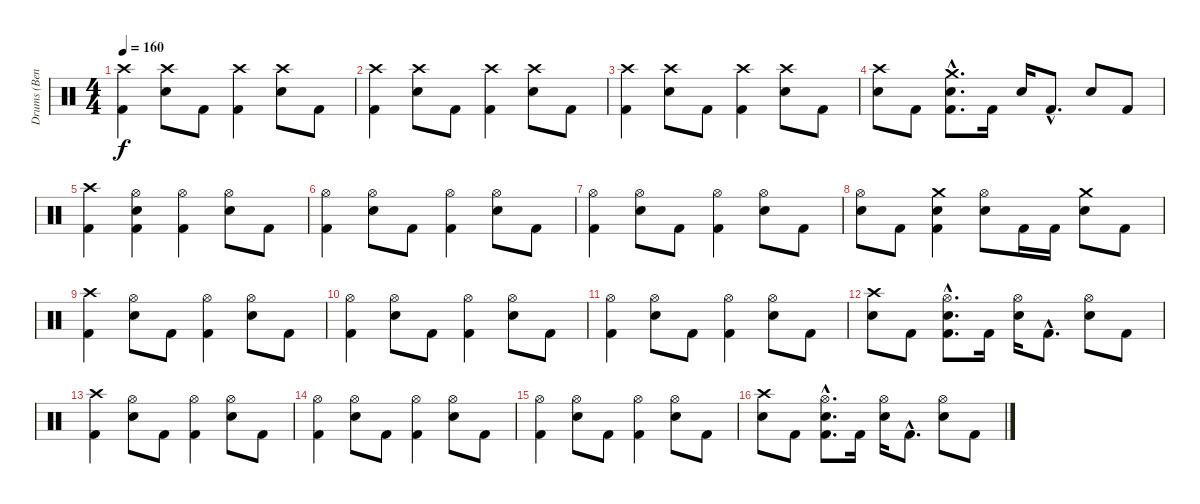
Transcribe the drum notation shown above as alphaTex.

\track ("Drums (Ben)" "Drums (Ben") {instrument percussion}
\staff {score}
\articulation defaults
\ts (4 4)
\tempo 160
\clef neutral
\ks c
("Crash high (hit)" "Kick (hit) 2").4{dy f} ("Crash high (hit)" "Snare (hit) 2").8 "Kick (hit) 2".8 ("Crash high (hit)" "Kick (hit) 2").4 ("Crash high (hit)" "Snare (hit) 2").8 "Kick (hit) 2".8 |
("Crash high (hit)" "Kick (hit) 2").4 ("Crash high (hit)" "Snare (hit) 2").8 "Kick (hit) 2".8 ("Crash high (hit)" "Kick (hit) 2").4 ("Crash high (hit)" "Snare (hit) 2").8 "Kick (hit) 2".8 |
("Crash high (hit)" "Kick (hit) 2").4 ("Crash high (hit)" "Snare (hit) 2").8 "Kick (hit) 2".8 ("Crash high (hit)" "Kick (hit) 2").4 ("Crash high (hit)" "Snare (hit) 2").8 "Kick (hit) 2".8 |
("Crash high (hit)" "Snare (hit) 2").8 "Kick (hit) 2".8 ("Crash medium (hit)"{hac} "Snare (hit) 2"{hac} "Kick (hit) 2"{hac}).8{d} "Kick (hit) 2".16 "Snare (hit) 2".16 "Kick (hit) 2"{hac}.8{d} "Snare (hit) 2".8 "Kick (hit) 2".8 |
("Crash high (hit)" "Kick (hit) 2").4 ("Hi-Hat (open)" "Snare (hit) 2" "Kick (hit) 2").4 ("Hi-Hat (open)" "Kick (hit) 2").4 ("Hi-Hat (open)" "Snare (hit) 2").8 "Kick (hit) 2".8 |
("Hi-Hat (open)" "Kick (hit) 2").4 ("Hi-Hat (open)" "Snare (hit) 2").8 "Kick (hit) 2".8 ("Hi-Hat (open)" "Kick (hit) 2").4 ("Hi-Hat (open)" "Snare (hit) 2").8 "Kick (hit) 2".8 |
("Hi-Hat (open)" "Kick (hit) 2").4 ("Hi-Hat (open)" "Snare (hit) 2").8 "Kick (hit) 2".8 ("Hi-Hat (open)" "Kick (hit) 2").4 ("Hi-Hat (open)" "Snare (hit) 2").8 "Kick (hit) 2".8 |
("Hi-Hat (open)" "Snare (hit) 2").8 "Kick (hit) 2".8 ("Crash medium (hit)" "Snare (hit) 2" "Kick (hit) 2").4 ("Hi-Hat (open)" "Snare (hit) 2").8 "Kick (hit) 2".16 "Kick (hit) 2".16 ("Crash medium (hit)" "Snare (hit) 2").8 "Kick (hit) 2".8 |
("Crash high (hit)" "Kick (hit) 2").4 ("Hi-Hat (open)" "Snare (hit) 2").8 "Kick (hit) 2".8 ("Hi-Hat (open)" "Kick (hit) 2").4 ("Hi-Hat (open)" "Snare (hit) 2").8 "Kick (hit) 2".8 |
("Hi-Hat (open)" "Kick (hit) 2").4 ("Hi-Hat (open)" "Snare (hit) 2").8 "Kick (hit) 2".8 ("Hi-Hat (open)" "Kick (hit) 2").4 ("Hi-Hat (open)" "Snare (hit) 2").8 "Kick (hit) 2".8 |
("Hi-Hat (open)" "Kick (hit) 2").4 ("Hi-Hat (open)" "Snare (hit) 2").8 "Kick (hit) 2".8 ("Hi-Hat (open)" "Kick (hit) 2").4 ("Hi-Hat (open)" "Snare (hit) 2").8 "Kick (hit) 2".8 |
("Crash high (hit)" "Snare (hit) 2").8 "Kick (hit) 2".8 ("Hi-Hat (open)"{hac} "Snare (hit) 2"{hac} "Kick (hit) 2"{hac}).8{d} "Kick (hit) 2".16 ("Hi-Hat (open)" "Snare (hit) 2").16 "Kick (hit) 2"{hac}.8{d} ("Hi-Hat (open)" "Snare (hit) 2").8 "Kick (hit) 2".8 |
("Crash high (hit)" "Kick (hit) 2").4 ("Hi-Hat (open)" "Snare (hit) 2").8 "Kick (hit) 2".8 ("Hi-Hat (open)" "Kick (hit) 2").4 ("Hi-Hat (open)" "Snare (hit) 2").8 "Kick (hit) 2".8 |
("Hi-Hat (open)" "Kick (hit) 2").4 ("Hi-Hat (open)" "Snare (hit) 2").8 "Kick (hit) 2".8 ("Hi-Hat (open)" "Kick (hit) 2").4 ("Hi-Hat (open)" "Snare (hit) 2").8 "Kick (hit) 2".8 |
("Hi-Hat (open)" "Kick (hit) 2").4 ("Hi-Hat (open)" "Snare (hit) 2").8 "Kick (hit) 2".8 ("Hi-Hat (open)" "Kick (hit) 2").4 ("Hi-Hat (open)" "Snare (hit) 2").8 "Kick (hit) 2".8 |
("Crash high (hit)" "Snare (hit) 2").8 "Kick (hit) 2".8 ("Hi-Hat (open)"{hac} "Snare (hit) 2"{hac} "Kick (hit) 2"{hac}).8{d} "Kick (hit) 2".16 ("Hi-Hat (open)" "Snare (hit) 2").16 "Kick (hit) 2"{hac}.8{d} ("Hi-Hat (open)" "Snare (hit) 2").8 "Kick (hit) 2".8
